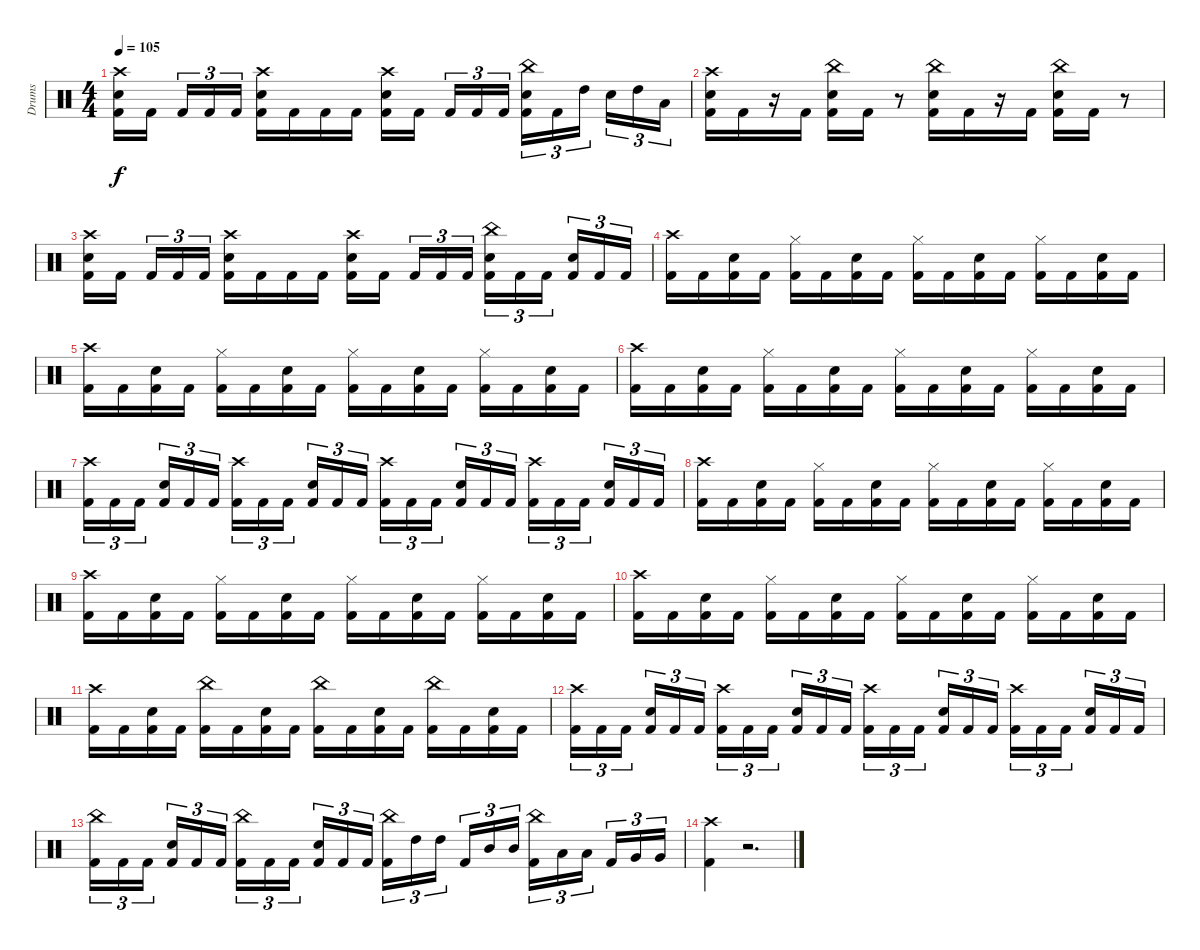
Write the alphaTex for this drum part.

\track ("Drums" "Drums") {instrument percussion}
\staff {score}
\articulation defaults
\ts (4 4)
\tempo 105
\clef neutral
\ks c
("Crash high (hit)" "Snare (hit) 2" "Kick (hit) 2").16{dy f} "Kick (hit) 2".16{beam splitsecondary} "Kick (hit) 2".16{tu (3 2)} "Kick (hit) 2".16{tu (3 2)} "Kick (hit) 2".16{tu (3 2)} ("Crash high (hit)" "Snare (hit) 2" "Kick (hit) 2").16 "Kick (hit) 2".16 "Kick (hit) 2".16 "Kick (hit) 2".16 ("Crash high (hit)" "Snare (hit) 2" "Kick (hit) 2").16 "Kick (hit) 2".16{beam splitsecondary} "Kick (hit) 2".16{tu (3 2)} "Kick (hit) 2".16{tu (3 2)} "Kick (hit) 2".16{tu (3 2)} ("China (hit)" "Snare (hit) 2" "Kick (hit) 2").16{tu (3 2)} "Kick (hit) 2".16{tu (3 2)} "High Tom (hit)".16{tu (3 2) beam splitsecondary} "Snare (hit) 2".16{tu (3 2)} "High Tom (hit)".16{tu (3 2)} "Low Tom (hit)".16{tu (3 2)} |
("Crash high (hit)" "Snare (hit) 2" "Kick (hit) 2").16 "Kick (hit) 2".16 r.16 "Kick (hit) 2".16 ("China (hit)" "Snare (hit) 2" "Kick (hit) 2").16 "Kick (hit) 2".16 r.8 ("China (hit)" "Snare (hit) 2" "Kick (hit) 2").16 "Kick (hit) 2".16 r.16 "Kick (hit) 2".16 ("China (hit)" "Snare (hit) 2" "Kick (hit) 2").16 "Kick (hit) 2".16 r.8 |
("Crash high (hit)" "Snare (hit) 2" "Kick (hit) 2").16 "Kick (hit) 2".16{beam splitsecondary} "Kick (hit) 2".16{tu (3 2)} "Kick (hit) 2".16{tu (3 2)} "Kick (hit) 2".16{tu (3 2)} ("Crash high (hit)" "Snare (hit) 2" "Kick (hit) 2").16 "Kick (hit) 2".16 "Kick (hit) 2".16 "Kick (hit) 2".16 ("Crash high (hit)" "Snare (hit) 2" "Kick (hit) 2").16 "Kick (hit) 2".16{beam splitsecondary} "Kick (hit) 2".16{tu (3 2)} "Kick (hit) 2".16{tu (3 2)} "Kick (hit) 2".16{tu (3 2)} ("China (hit)" "Snare (hit) 2" "Kick (hit) 2").16{tu (3 2)} "Kick (hit) 2".16{tu (3 2)} "Kick (hit) 2".16{tu (3 2) beam splitsecondary} ("Snare (hit) 2" "Kick (hit) 2").16{tu (3 2)} "Kick (hit) 2".16{tu (3 2)} "Kick (hit) 2".16{tu (3 2)} |
("Crash high (hit)" "Kick (hit) 2").16 "Kick (hit) 2".16 ("Snare (hit) 2" "Kick (hit) 2").16 "Kick (hit) 2".16 ("Hi-Hat (closed)" "Kick (hit) 2").16 "Kick (hit) 2".16 ("Snare (hit) 2" "Kick (hit) 2").16 "Kick (hit) 2".16 ("Hi-Hat (closed)" "Kick (hit) 2").16 "Kick (hit) 2".16 ("Snare (hit) 2" "Kick (hit) 2").16 "Kick (hit) 2".16 ("Hi-Hat (closed)" "Kick (hit) 2").16 "Kick (hit) 2".16 ("Snare (hit) 2" "Kick (hit) 2").16 "Kick (hit) 2".16 |
("Crash high (hit)" "Kick (hit) 2").16 "Kick (hit) 2".16 ("Snare (hit) 2" "Kick (hit) 2").16 "Kick (hit) 2".16 ("Hi-Hat (closed)" "Kick (hit) 2").16 "Kick (hit) 2".16 ("Snare (hit) 2" "Kick (hit) 2").16 "Kick (hit) 2".16 ("Hi-Hat (closed)" "Kick (hit) 2").16 "Kick (hit) 2".16 ("Snare (hit) 2" "Kick (hit) 2").16 "Kick (hit) 2".16 ("Hi-Hat (closed)" "Kick (hit) 2").16 "Kick (hit) 2".16 ("Snare (hit) 2" "Kick (hit) 2").16 "Kick (hit) 2".16 |
("Crash high (hit)" "Kick (hit) 2").16 "Kick (hit) 2".16 ("Snare (hit) 2" "Kick (hit) 2").16 "Kick (hit) 2".16 ("Hi-Hat (closed)" "Kick (hit) 2").16 "Kick (hit) 2".16 ("Snare (hit) 2" "Kick (hit) 2").16 "Kick (hit) 2".16 ("Hi-Hat (closed)" "Kick (hit) 2").16 "Kick (hit) 2".16 ("Snare (hit) 2" "Kick (hit) 2").16 "Kick (hit) 2".16 ("Hi-Hat (closed)" "Kick (hit) 2").16 "Kick (hit) 2".16 ("Snare (hit) 2" "Kick (hit) 2").16 "Kick (hit) 2".16 |
("Crash high (hit)" "Kick (hit) 2").16{tu (3 2)} "Kick (hit) 2".16{tu (3 2)} "Kick (hit) 2".16{tu (3 2) beam splitsecondary} ("Snare (hit) 2" "Kick (hit) 2").16{tu (3 2)} "Kick (hit) 2".16{tu (3 2)} "Kick (hit) 2".16{tu (3 2)} ("Crash high (hit)" "Kick (hit) 2").16{tu (3 2)} "Kick (hit) 2".16{tu (3 2)} "Kick (hit) 2".16{tu (3 2) beam splitsecondary} ("Snare (hit) 2" "Kick (hit) 2").16{tu (3 2)} "Kick (hit) 2".16{tu (3 2)} "Kick (hit) 2".16{tu (3 2)} ("Crash high (hit)" "Kick (hit) 2").16{tu (3 2)} "Kick (hit) 2".16{tu (3 2)} "Kick (hit) 2".16{tu (3 2) beam splitsecondary} ("Snare (hit) 2" "Kick (hit) 2").16{tu (3 2)} "Kick (hit) 2".16{tu (3 2)} "Kick (hit) 2".16{tu (3 2)} ("Crash high (hit)" "Kick (hit) 2").16{tu (3 2)} "Kick (hit) 2".16{tu (3 2)} "Kick (hit) 2".16{tu (3 2) beam splitsecondary} ("Snare (hit) 2" "Kick (hit) 2").16{tu (3 2)} "Kick (hit) 2".16{tu (3 2)} "Kick (hit) 2".16{tu (3 2)} |
("Crash high (hit)" "Kick (hit) 2").16 "Kick (hit) 2".16 ("Snare (hit) 2" "Kick (hit) 2").16 "Kick (hit) 2".16 ("Hi-Hat (closed)" "Kick (hit) 2").16 "Kick (hit) 2".16 ("Snare (hit) 2" "Kick (hit) 2").16 "Kick (hit) 2".16 ("Hi-Hat (closed)" "Kick (hit) 2").16 "Kick (hit) 2".16 ("Snare (hit) 2" "Kick (hit) 2").16 "Kick (hit) 2".16 ("Hi-Hat (closed)" "Kick (hit) 2").16 "Kick (hit) 2".16 ("Snare (hit) 2" "Kick (hit) 2").16 "Kick (hit) 2".16 |
("Crash high (hit)" "Kick (hit) 2").16 "Kick (hit) 2".16 ("Snare (hit) 2" "Kick (hit) 2").16 "Kick (hit) 2".16 ("Hi-Hat (closed)" "Kick (hit) 2").16 "Kick (hit) 2".16 ("Snare (hit) 2" "Kick (hit) 2").16 "Kick (hit) 2".16 ("Hi-Hat (closed)" "Kick (hit) 2").16 "Kick (hit) 2".16 ("Snare (hit) 2" "Kick (hit) 2").16 "Kick (hit) 2".16 ("Hi-Hat (closed)" "Kick (hit) 2").16 "Kick (hit) 2".16 ("Snare (hit) 2" "Kick (hit) 2").16 "Kick (hit) 2".16 |
("Crash high (hit)" "Kick (hit) 2").16 "Kick (hit) 2".16 ("Snare (hit) 2" "Kick (hit) 2").16 "Kick (hit) 2".16 ("Hi-Hat (closed)" "Kick (hit) 2").16 "Kick (hit) 2".16 ("Snare (hit) 2" "Kick (hit) 2").16 "Kick (hit) 2".16 ("Hi-Hat (closed)" "Kick (hit) 2").16 "Kick (hit) 2".16 ("Snare (hit) 2" "Kick (hit) 2").16 "Kick (hit) 2".16 ("Hi-Hat (closed)" "Kick (hit) 2").16 "Kick (hit) 2".16 ("Snare (hit) 2" "Kick (hit) 2").16 "Kick (hit) 2".16 |
("Crash high (hit)" "Kick (hit) 2").16 "Kick (hit) 2".16 ("Snare (hit) 2" "Kick (hit) 2").16 "Kick (hit) 2".16 ("China (hit)" "Kick (hit) 2").16 "Kick (hit) 2".16 ("Snare (hit) 2" "Kick (hit) 2").16 "Kick (hit) 2".16 ("China (hit)" "Kick (hit) 2").16 "Kick (hit) 2".16 ("Snare (hit) 2" "Kick (hit) 2").16 "Kick (hit) 2".16 ("China (hit)" "Kick (hit) 2").16 "Kick (hit) 2".16 ("Snare (hit) 2" "Kick (hit) 2").16 "Kick (hit) 2".16 |
("Crash high (hit)" "Kick (hit) 2").16{tu (3 2)} "Kick (hit) 2".16{tu (3 2)} "Kick (hit) 2".16{tu (3 2) beam splitsecondary} ("Snare (hit) 2" "Kick (hit) 2").16{tu (3 2)} "Kick (hit) 2".16{tu (3 2)} "Kick (hit) 2".16{tu (3 2)} ("Crash high (hit)" "Kick (hit) 2").16{tu (3 2)} "Kick (hit) 2".16{tu (3 2)} "Kick (hit) 2".16{tu (3 2) beam splitsecondary} ("Snare (hit) 2" "Kick (hit) 2").16{tu (3 2)} "Kick (hit) 2".16{tu (3 2)} "Kick (hit) 2".16{tu (3 2)} ("Crash high (hit)" "Kick (hit) 2").16{tu (3 2)} "Kick (hit) 2".16{tu (3 2)} "Kick (hit) 2".16{tu (3 2) beam splitsecondary} ("Snare (hit) 2" "Kick (hit) 2").16{tu (3 2)} "Kick (hit) 2".16{tu (3 2)} "Kick (hit) 2".16{tu (3 2)} ("Crash high (hit)" "Kick (hit) 2").16{tu (3 2)} "Kick (hit) 2".16{tu (3 2)} "Kick (hit) 2".16{tu (3 2) beam splitsecondary} ("Snare (hit) 2" "Kick (hit) 2").16{tu (3 2)} "Kick (hit) 2".16{tu (3 2)} "Kick (hit) 2".16{tu (3 2)} |
("China (hit)" "Kick (hit) 2").16{tu (3 2)} "Kick (hit) 2".16{tu (3 2)} "Kick (hit) 2".16{tu (3 2) beam splitsecondary} ("Snare (hit) 2" "Kick (hit) 2").16{tu (3 2)} "Kick (hit) 2".16{tu (3 2)} "Kick (hit) 2".16{tu (3 2)} ("China (hit)" "Kick (hit) 2").16{tu (3 2)} "Kick (hit) 2".16{tu (3 2)} "Kick (hit) 2".16{tu (3 2) beam splitsecondary} ("Snare (hit) 2" "Kick (hit) 2").16{tu (3 2)} "Kick (hit) 2".16{tu (3 2)} "Kick (hit) 2".16{tu (3 2)} ("China (hit)" "Kick (hit) 2").16{tu (3 2)} "High Tom (hit)".16{tu (3 2)} "High Tom (hit)".16{tu (3 2) beam splitsecondary} "Kick (hit) 2".16{tu (3 2)} "Mid Tom (hit)".16{tu (3 2)} "Mid Tom (hit)".16{tu (3 2)} ("China (hit)" "Kick (hit) 2").16{tu (3 2)} "Low Tom (hit)".16{tu (3 2)} "Low Tom (hit)".16{tu (3 2) beam splitsecondary} "Kick (hit) 2".16{tu (3 2)} "Very Low Tom (hit)".16{tu (3 2)} "Very Low Tom (hit)".16{tu (3 2)} |
("Crash high (hit)" "Kick (hit) 2").4 r.2{d}
